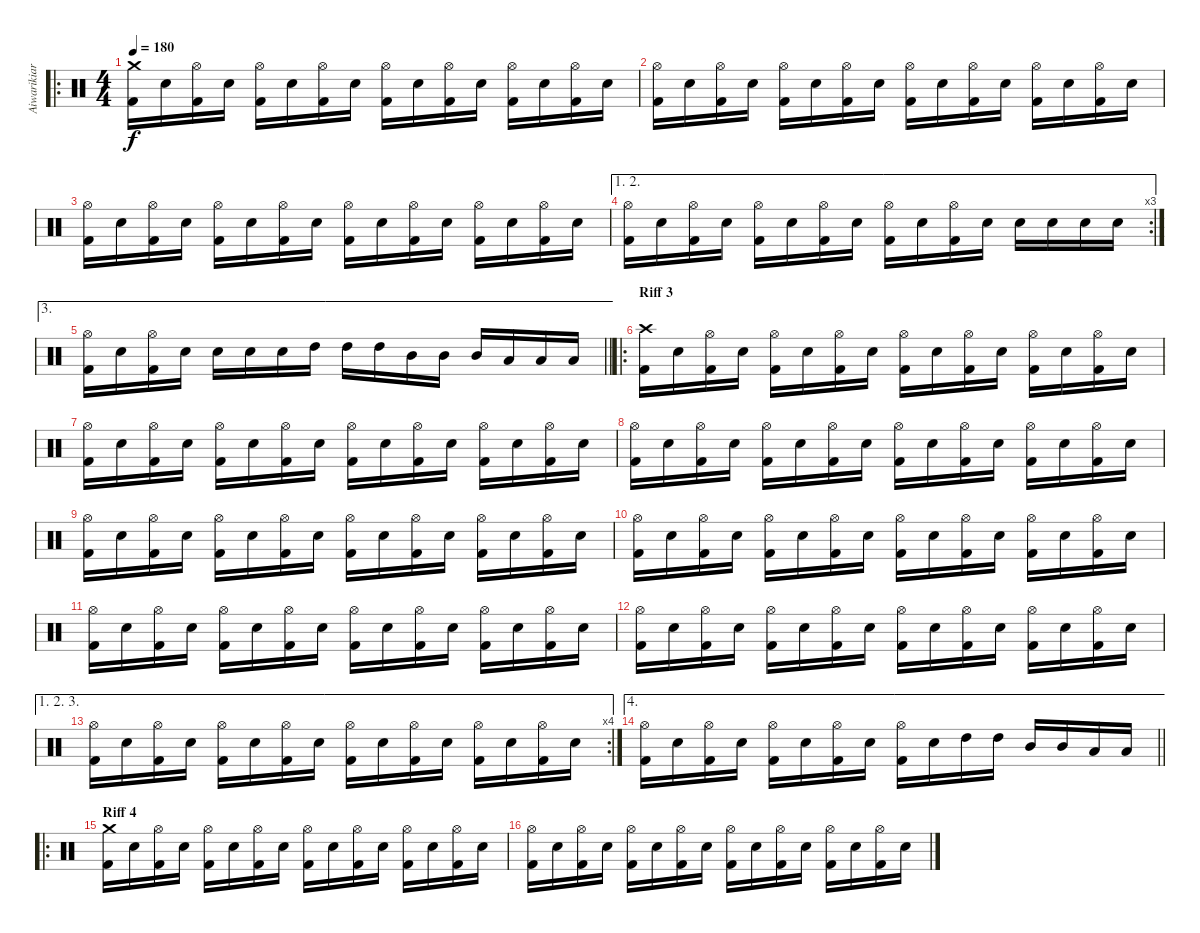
\track ("Aiwarikiar" "Aiwarikiar") {instrument percussion}
\staff {score}
\articulation defaults
\ro
\ts (4 4)
\tempo 180
\clef neutral
\ks c
("Crash medium (hit)" "Kick (hit) 2").16{dy f} "Electric Snare (hit)".16 ("Hi-Hat (open)" "Kick (hit) 2").16 "Electric Snare (hit)".16 ("Hi-Hat (open)" "Kick (hit) 2").16 "Electric Snare (hit)".16 ("Hi-Hat (open)" "Kick (hit) 2").16 "Electric Snare (hit)".16 ("Hi-Hat (open)" "Kick (hit) 2").16 "Electric Snare (hit)".16 ("Hi-Hat (open)" "Kick (hit) 2").16 "Electric Snare (hit)".16 ("Hi-Hat (open)" "Kick (hit) 2").16 "Electric Snare (hit)".16 ("Hi-Hat (open)" "Kick (hit) 2").16 "Electric Snare (hit)".16 |
("Hi-Hat (open)" "Kick (hit) 2").16 "Electric Snare (hit)".16 ("Hi-Hat (open)" "Kick (hit) 2").16 "Electric Snare (hit)".16 ("Hi-Hat (open)" "Kick (hit) 2").16 "Electric Snare (hit)".16 ("Hi-Hat (open)" "Kick (hit) 2").16 "Electric Snare (hit)".16 ("Hi-Hat (open)" "Kick (hit) 2").16 "Electric Snare (hit)".16 ("Hi-Hat (open)" "Kick (hit) 2").16 "Electric Snare (hit)".16 ("Hi-Hat (open)" "Kick (hit) 2").16 "Electric Snare (hit)".16 ("Hi-Hat (open)" "Kick (hit) 2").16 "Electric Snare (hit)".16 |
("Hi-Hat (open)" "Kick (hit) 2").16 "Electric Snare (hit)".16 ("Hi-Hat (open)" "Kick (hit) 2").16 "Electric Snare (hit)".16 ("Hi-Hat (open)" "Kick (hit) 2").16 "Electric Snare (hit)".16 ("Hi-Hat (open)" "Kick (hit) 2").16 "Electric Snare (hit)".16 ("Hi-Hat (open)" "Kick (hit) 2").16 "Electric Snare (hit)".16 ("Hi-Hat (open)" "Kick (hit) 2").16 "Electric Snare (hit)".16 ("Hi-Hat (open)" "Kick (hit) 2").16 "Electric Snare (hit)".16 ("Hi-Hat (open)" "Kick (hit) 2").16 "Electric Snare (hit)".16 |
\ae (1 2)
\rc 3
("Hi-Hat (open)" "Kick (hit) 2").16 "Electric Snare (hit)".16 ("Hi-Hat (open)" "Kick (hit) 2").16 "Electric Snare (hit)".16 ("Hi-Hat (open)" "Kick (hit) 2").16 "Electric Snare (hit)".16 ("Hi-Hat (open)" "Kick (hit) 2").16 "Electric Snare (hit)".16 ("Hi-Hat (open)" "Kick (hit) 2").16 "Electric Snare (hit)".16 ("Hi-Hat (open)" "Kick (hit) 2").16 "Electric Snare (hit)".16 "Electric Snare (hit)".16 "Electric Snare (hit)".16 "Electric Snare (hit)".16 "Electric Snare (hit)".16 |
\ae 3
\barLineRight lightlight
("Hi-Hat (open)" "Kick (hit) 2").16 "Electric Snare (hit)".16 ("Hi-Hat (open)" "Kick (hit) 2").16 "Electric Snare (hit)".16 "Electric Snare (hit)".16 "Electric Snare (hit)".16 "Electric Snare (hit)".16 "High Tom (hit)".16 "High Tom (hit)".16 "High Tom (hit)".16 "Mid Tom (hit)".16 "Mid Tom (hit)".16 "Mid Tom (hit)".16 "Low Tom (hit)".16 "Low Tom (hit)".16 "Low Tom (hit)".16 |
\ro
\section ("" "Riff 3")
("Crash high (hit)" "Kick (hit) 2").16 "Electric Snare (hit)".16 ("Hi-Hat (open)" "Kick (hit) 2").16 "Electric Snare (hit)".16 ("Hi-Hat (open)" "Kick (hit) 2").16 "Electric Snare (hit)".16 ("Hi-Hat (open)" "Kick (hit) 2").16 "Electric Snare (hit)".16 ("Hi-Hat (open)" "Kick (hit) 2").16 "Electric Snare (hit)".16 ("Hi-Hat (open)" "Kick (hit) 2").16 "Electric Snare (hit)".16 ("Hi-Hat (open)" "Kick (hit) 2").16 "Electric Snare (hit)".16 ("Hi-Hat (open)" "Kick (hit) 2").16 "Electric Snare (hit)".16 |
("Hi-Hat (open)" "Kick (hit) 2").16 "Electric Snare (hit)".16 ("Hi-Hat (open)" "Kick (hit) 2").16 "Electric Snare (hit)".16 ("Hi-Hat (open)" "Kick (hit) 2").16 "Electric Snare (hit)".16 ("Hi-Hat (open)" "Kick (hit) 2").16 "Electric Snare (hit)".16 ("Hi-Hat (open)" "Kick (hit) 2").16 "Electric Snare (hit)".16 ("Hi-Hat (open)" "Kick (hit) 2").16 "Electric Snare (hit)".16 ("Hi-Hat (open)" "Kick (hit) 2").16 "Electric Snare (hit)".16 ("Hi-Hat (open)" "Kick (hit) 2").16 "Electric Snare (hit)".16 |
("Hi-Hat (open)" "Kick (hit) 2").16 "Electric Snare (hit)".16 ("Hi-Hat (open)" "Kick (hit) 2").16 "Electric Snare (hit)".16 ("Hi-Hat (open)" "Kick (hit) 2").16 "Electric Snare (hit)".16 ("Hi-Hat (open)" "Kick (hit) 2").16 "Electric Snare (hit)".16 ("Hi-Hat (open)" "Kick (hit) 2").16 "Electric Snare (hit)".16 ("Hi-Hat (open)" "Kick (hit) 2").16 "Electric Snare (hit)".16 ("Hi-Hat (open)" "Kick (hit) 2").16 "Electric Snare (hit)".16 ("Hi-Hat (open)" "Kick (hit) 2").16 "Electric Snare (hit)".16 |
("Hi-Hat (open)" "Kick (hit) 2").16 "Electric Snare (hit)".16 ("Hi-Hat (open)" "Kick (hit) 2").16 "Electric Snare (hit)".16 ("Hi-Hat (open)" "Kick (hit) 2").16 "Electric Snare (hit)".16 ("Hi-Hat (open)" "Kick (hit) 2").16 "Electric Snare (hit)".16 ("Hi-Hat (open)" "Kick (hit) 2").16 "Electric Snare (hit)".16 ("Hi-Hat (open)" "Kick (hit) 2").16 "Electric Snare (hit)".16 ("Hi-Hat (open)" "Kick (hit) 2").16 "Electric Snare (hit)".16 ("Hi-Hat (open)" "Kick (hit) 2").16 "Electric Snare (hit)".16 |
("Hi-Hat (open)" "Kick (hit) 2").16 "Electric Snare (hit)".16 ("Hi-Hat (open)" "Kick (hit) 2").16 "Electric Snare (hit)".16 ("Hi-Hat (open)" "Kick (hit) 2").16 "Electric Snare (hit)".16 ("Hi-Hat (open)" "Kick (hit) 2").16 "Electric Snare (hit)".16 ("Hi-Hat (open)" "Kick (hit) 2").16 "Electric Snare (hit)".16 ("Hi-Hat (open)" "Kick (hit) 2").16 "Electric Snare (hit)".16 ("Hi-Hat (open)" "Kick (hit) 2").16 "Electric Snare (hit)".16 ("Hi-Hat (open)" "Kick (hit) 2").16 "Electric Snare (hit)".16 |
("Hi-Hat (open)" "Kick (hit) 2").16 "Electric Snare (hit)".16 ("Hi-Hat (open)" "Kick (hit) 2").16 "Electric Snare (hit)".16 ("Hi-Hat (open)" "Kick (hit) 2").16 "Electric Snare (hit)".16 ("Hi-Hat (open)" "Kick (hit) 2").16 "Electric Snare (hit)".16 ("Hi-Hat (open)" "Kick (hit) 2").16 "Electric Snare (hit)".16 ("Hi-Hat (open)" "Kick (hit) 2").16 "Electric Snare (hit)".16 ("Hi-Hat (open)" "Kick (hit) 2").16 "Electric Snare (hit)".16 ("Hi-Hat (open)" "Kick (hit) 2").16 "Electric Snare (hit)".16 |
("Hi-Hat (open)" "Kick (hit) 2").16 "Electric Snare (hit)".16 ("Hi-Hat (open)" "Kick (hit) 2").16 "Electric Snare (hit)".16 ("Hi-Hat (open)" "Kick (hit) 2").16 "Electric Snare (hit)".16 ("Hi-Hat (open)" "Kick (hit) 2").16 "Electric Snare (hit)".16 ("Hi-Hat (open)" "Kick (hit) 2").16 "Electric Snare (hit)".16 ("Hi-Hat (open)" "Kick (hit) 2").16 "Electric Snare (hit)".16 ("Hi-Hat (open)" "Kick (hit) 2").16 "Electric Snare (hit)".16 ("Hi-Hat (open)" "Kick (hit) 2").16 "Electric Snare (hit)".16 |
\ae (1 2 3)
\rc 4
("Hi-Hat (open)" "Kick (hit) 2").16 "Electric Snare (hit)".16 ("Hi-Hat (open)" "Kick (hit) 2").16 "Electric Snare (hit)".16 ("Hi-Hat (open)" "Kick (hit) 2").16 "Electric Snare (hit)".16 ("Hi-Hat (open)" "Kick (hit) 2").16 "Electric Snare (hit)".16 ("Hi-Hat (open)" "Kick (hit) 2").16 "Electric Snare (hit)".16 ("Hi-Hat (open)" "Kick (hit) 2").16 "Electric Snare (hit)".16 ("Hi-Hat (open)" "Kick (hit) 2").16 "Electric Snare (hit)".16 ("Hi-Hat (open)" "Kick (hit) 2").16 "Electric Snare (hit)".16 |
\ae 4
\barLineRight lightlight
("Hi-Hat (open)" "Kick (hit) 2").16 "Electric Snare (hit)".16 ("Hi-Hat (open)" "Kick (hit) 2").16 "Electric Snare (hit)".16 ("Hi-Hat (open)" "Kick (hit) 2").16 "Electric Snare (hit)".16 ("Hi-Hat (open)" "Kick (hit) 2").16 "Electric Snare (hit)".16 ("Hi-Hat (open)" "Kick (hit) 2").16 "Electric Snare (hit)".16 "High Tom (hit)".16 "High Tom (hit)".16 "Mid Tom (hit)".16 "Mid Tom (hit)".16 "Low Tom (hit)".16 "Low Tom (hit)".16 |
\ro
\section ("" "Riff 4")
("Crash medium (hit)" "Kick (hit) 2").16 "Electric Snare (hit)".16 ("Hi-Hat (open)" "Kick (hit) 2").16 "Electric Snare (hit)".16 ("Hi-Hat (open)" "Kick (hit) 2").16 "Electric Snare (hit)".16 ("Hi-Hat (open)" "Kick (hit) 2").16 "Electric Snare (hit)".16 ("Hi-Hat (open)" "Kick (hit) 2").16 "Electric Snare (hit)".16 ("Hi-Hat (open)" "Kick (hit) 2").16 "Electric Snare (hit)".16 ("Hi-Hat (open)" "Kick (hit) 2").16 "Electric Snare (hit)".16 ("Hi-Hat (open)" "Kick (hit) 2").16 "Electric Snare (hit)".16 |
("Hi-Hat (open)" "Kick (hit) 2").16 "Electric Snare (hit)".16 ("Hi-Hat (open)" "Kick (hit) 2").16 "Electric Snare (hit)".16 ("Hi-Hat (open)" "Kick (hit) 2").16 "Electric Snare (hit)".16 ("Hi-Hat (open)" "Kick (hit) 2").16 "Electric Snare (hit)".16 ("Hi-Hat (open)" "Kick (hit) 2").16 "Electric Snare (hit)".16 ("Hi-Hat (open)" "Kick (hit) 2").16 "Electric Snare (hit)".16 ("Hi-Hat (open)" "Kick (hit) 2").16 "Electric Snare (hit)".16 ("Hi-Hat (open)" "Kick (hit) 2").16 "Electric Snare (hit)".16
